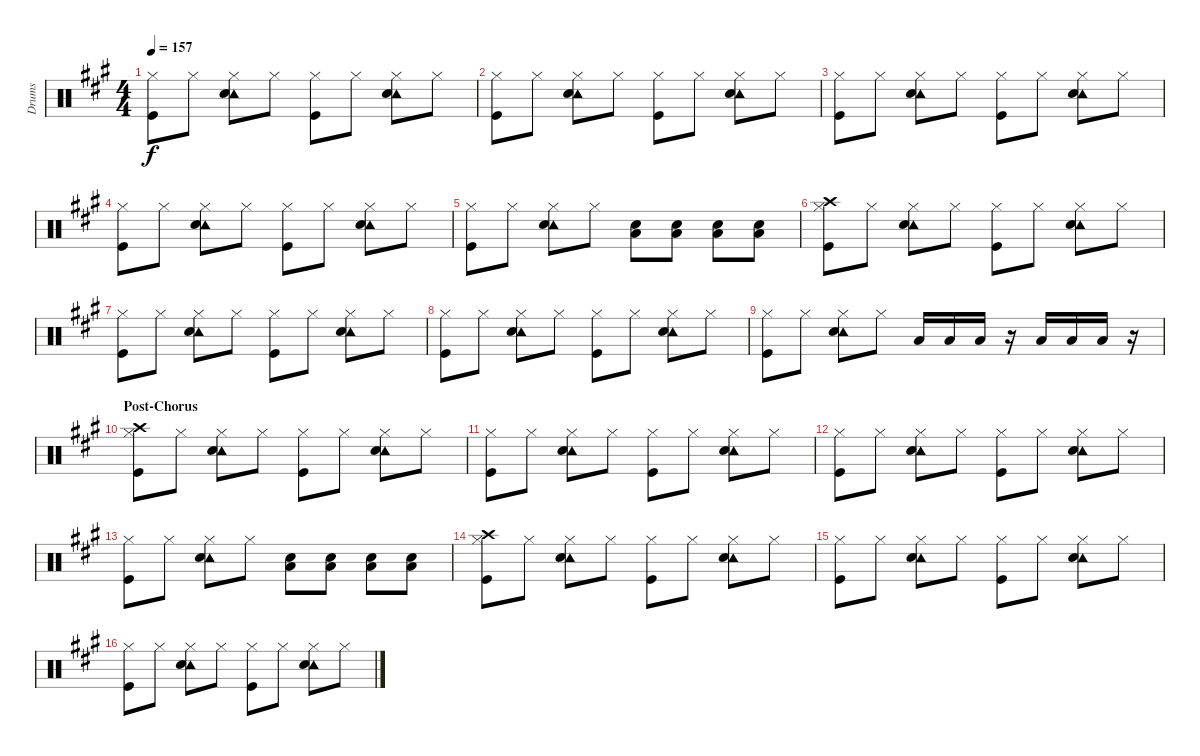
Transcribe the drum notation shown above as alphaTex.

\track ("Drums" "Drums") {instrument percussion}
\staff {score}
\articulation defaults
\ts (4 4)
\tempo 157
\clef neutral
\ks a
("Hi-Hat (closed)" "Kick (hit)").8{dy f} "Hi-Hat (closed)".8 ("Hi-Hat (closed)" "Tambourine (hit)" "Electric Snare (hit)").8 "Hi-Hat (closed)".8 ("Hi-Hat (closed)" "Kick (hit)").8 "Hi-Hat (closed)".8 ("Hi-Hat (closed)" "Tambourine (hit)" "Electric Snare (hit)").8 "Hi-Hat (closed)".8 |
("Hi-Hat (closed)" "Kick (hit)").8 "Hi-Hat (closed)".8 ("Hi-Hat (closed)" "Tambourine (hit)" "Electric Snare (hit)").8 "Hi-Hat (closed)".8 ("Hi-Hat (closed)" "Kick (hit)").8 "Hi-Hat (closed)".8 ("Hi-Hat (closed)" "Tambourine (hit)" "Electric Snare (hit)").8 "Hi-Hat (closed)".8 |
("Hi-Hat (closed)" "Kick (hit)").8 "Hi-Hat (closed)".8 ("Hi-Hat (closed)" "Tambourine (hit)" "Electric Snare (hit)").8 "Hi-Hat (closed)".8 ("Hi-Hat (closed)" "Kick (hit)").8 "Hi-Hat (closed)".8 ("Hi-Hat (closed)" "Tambourine (hit)" "Electric Snare (hit)").8 "Hi-Hat (closed)".8 |
("Hi-Hat (closed)" "Kick (hit)").8 "Hi-Hat (closed)".8 ("Hi-Hat (closed)" "Tambourine (hit)" "Electric Snare (hit)").8 "Hi-Hat (closed)".8 ("Hi-Hat (closed)" "Kick (hit)").8 "Hi-Hat (closed)".8 ("Hi-Hat (closed)" "Tambourine (hit)" "Electric Snare (hit)").8 "Hi-Hat (closed)".8 |
("Hi-Hat (closed)" "Kick (hit)").8 "Hi-Hat (closed)".8 ("Hi-Hat (closed)" "Tambourine (hit)" "Electric Snare (hit)").8 "Hi-Hat (closed)".8 ("Electric Snare (hit)" "Low Floor Tom (hit)").8 ("Electric Snare (hit)" "Low Floor Tom (hit)").8 ("Electric Snare (hit)" "Low Floor Tom (hit)").8 ("Electric Snare (hit)" "Low Floor Tom (hit)").8 |
("Hi-Hat (closed)" "Crash high (hit)" "Kick (hit)").8 "Hi-Hat (closed)".8 ("Hi-Hat (closed)" "Tambourine (hit)" "Electric Snare (hit)").8 "Hi-Hat (closed)".8 ("Hi-Hat (closed)" "Kick (hit)").8 "Hi-Hat (closed)".8 ("Hi-Hat (closed)" "Tambourine (hit)" "Electric Snare (hit)").8 "Hi-Hat (closed)".8 |
("Hi-Hat (closed)" "Kick (hit)").8 "Hi-Hat (closed)".8 ("Hi-Hat (closed)" "Tambourine (hit)" "Electric Snare (hit)").8 "Hi-Hat (closed)".8 ("Hi-Hat (closed)" "Kick (hit)").8 "Hi-Hat (closed)".8 ("Hi-Hat (closed)" "Tambourine (hit)" "Electric Snare (hit)").8 "Hi-Hat (closed)".8 |
("Hi-Hat (closed)" "Kick (hit)").8 "Hi-Hat (closed)".8 ("Hi-Hat (closed)" "Tambourine (hit)" "Electric Snare (hit)").8 "Hi-Hat (closed)".8 ("Hi-Hat (closed)" "Kick (hit)").8 "Hi-Hat (closed)".8 ("Hi-Hat (closed)" "Tambourine (hit)" "Electric Snare (hit)").8 "Hi-Hat (closed)".8 |
("Hi-Hat (closed)" "Kick (hit)").8 "Hi-Hat (closed)".8 ("Hi-Hat (closed)" "Tambourine (hit)" "Electric Snare (hit)").8 "Hi-Hat (closed)".8 "Low Tom (hit)".16 "Low Tom (hit)".16 "Low Tom (hit)".16 r.16 "Low Floor Tom (hit)".16 "Low Floor Tom (hit)".16 "Low Floor Tom (hit)".16 r.16 |
\section ("" "Post-Chorus")
("Hi-Hat (closed)" "Crash high (hit)" "Kick (hit)").8 "Hi-Hat (closed)".8 ("Hi-Hat (closed)" "Tambourine (hit)" "Electric Snare (hit)").8 "Hi-Hat (closed)".8 ("Hi-Hat (closed)" "Kick (hit)").8 "Hi-Hat (closed)".8 ("Hi-Hat (closed)" "Tambourine (hit)" "Electric Snare (hit)").8 "Hi-Hat (closed)".8 |
("Hi-Hat (closed)" "Kick (hit)").8 "Hi-Hat (closed)".8 ("Hi-Hat (closed)" "Tambourine (hit)" "Electric Snare (hit)").8 "Hi-Hat (closed)".8 ("Hi-Hat (closed)" "Kick (hit)").8 "Hi-Hat (closed)".8 ("Hi-Hat (closed)" "Tambourine (hit)" "Electric Snare (hit)").8 "Hi-Hat (closed)".8 |
("Hi-Hat (closed)" "Kick (hit)").8 "Hi-Hat (closed)".8 ("Hi-Hat (closed)" "Tambourine (hit)" "Electric Snare (hit)").8 "Hi-Hat (closed)".8 ("Hi-Hat (closed)" "Kick (hit)").8 "Hi-Hat (closed)".8 ("Hi-Hat (closed)" "Tambourine (hit)" "Electric Snare (hit)").8 "Hi-Hat (closed)".8 |
("Hi-Hat (closed)" "Kick (hit)").8 "Hi-Hat (closed)".8 ("Hi-Hat (closed)" "Tambourine (hit)" "Electric Snare (hit)").8 "Hi-Hat (closed)".8 ("Electric Snare (hit)" "Low Floor Tom (hit)").8 ("Electric Snare (hit)" "Low Floor Tom (hit)").8 ("Electric Snare (hit)" "Low Floor Tom (hit)").8 ("Electric Snare (hit)" "Low Floor Tom (hit)").8 |
("Hi-Hat (closed)" "Crash high (hit)" "Kick (hit)").8 "Hi-Hat (closed)".8 ("Hi-Hat (closed)" "Tambourine (hit)" "Electric Snare (hit)").8 "Hi-Hat (closed)".8 ("Hi-Hat (closed)" "Kick (hit)").8 "Hi-Hat (closed)".8 ("Hi-Hat (closed)" "Tambourine (hit)" "Electric Snare (hit)").8 "Hi-Hat (closed)".8 |
("Hi-Hat (closed)" "Kick (hit)").8{volume 10} "Hi-Hat (closed)".8 ("Hi-Hat (closed)" "Tambourine (hit)" "Electric Snare (hit)").8 "Hi-Hat (closed)".8 ("Hi-Hat (closed)" "Kick (hit)").8 "Hi-Hat (closed)".8 ("Hi-Hat (closed)" "Tambourine (hit)" "Electric Snare (hit)").8 "Hi-Hat (closed)".8 |
("Hi-Hat (closed)" "Kick (hit)").8{volume 8} "Hi-Hat (closed)".8 ("Hi-Hat (closed)" "Tambourine (hit)" "Electric Snare (hit)").8 "Hi-Hat (closed)".8 ("Hi-Hat (closed)" "Kick (hit)").8 "Hi-Hat (closed)".8 ("Hi-Hat (closed)" "Tambourine (hit)" "Electric Snare (hit)").8 "Hi-Hat (closed)".8
